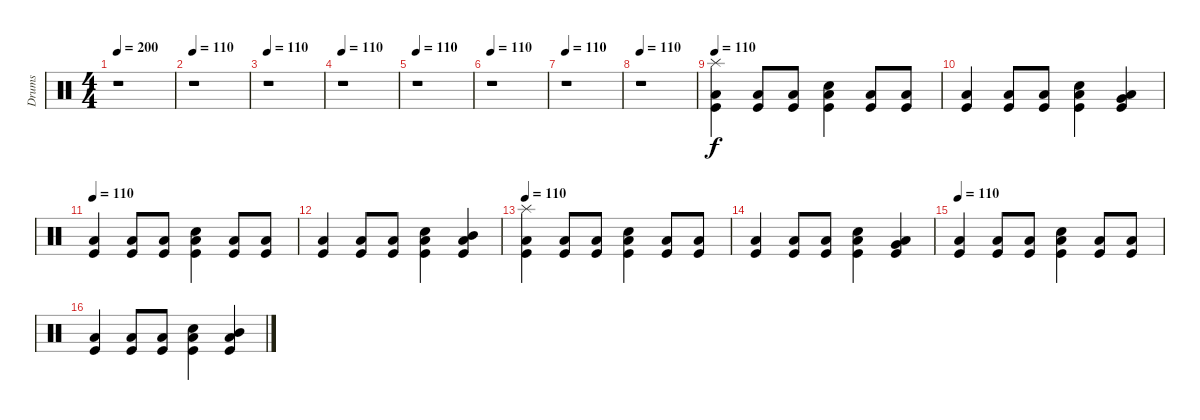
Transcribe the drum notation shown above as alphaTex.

\track ("Drums" "Drums") {instrument percussion}
\staff {score}
\articulation defaults
\ts (4 4)
\tempo 200
\tempo 110
\tempo 200
\clef neutral
\ks c
r.1{dy f} |
\tempo 110
r.1 |
\tempo 110
r.1 |
\tempo 110
r.1 |
\tempo 110
r.1 |
\tempo 110
r.1 |
\tempo 110
r.1 |
\tempo 110
r.1 |
\tempo 110
("Splash (hit)" "Low Floor Tom (hit)" "Kick (hit)").4 ("Low Floor Tom (hit)" "Kick (hit)").8 ("Low Floor Tom (hit)" "Kick (hit)").8 ("Snare (hit) 2" "Low Floor Tom (hit)" "Kick (hit)").4 ("Low Floor Tom (hit)" "Kick (hit)").8 ("Low Floor Tom (hit)" "Kick (hit)").8 |
("Low Floor Tom (hit)" "Kick (hit)").4 ("Low Floor Tom (hit)" "Kick (hit)").8 ("Low Floor Tom (hit)" "Kick (hit)").8 ("Snare (hit) 2" "Low Floor Tom (hit)" "Kick (hit)").4 ("Very Low Tom (hit)" "Low Floor Tom (hit)" "Kick (hit)").4 |
\tempo 110
("Low Floor Tom (hit)" "Kick (hit)").4 ("Low Floor Tom (hit)" "Kick (hit)").8 ("Low Floor Tom (hit)" "Kick (hit)").8 ("Snare (hit) 2" "Low Floor Tom (hit)" "Kick (hit)").4 ("Low Floor Tom (hit)" "Kick (hit)").8 ("Low Floor Tom (hit)" "Kick (hit)").8 |
("Low Floor Tom (hit)" "Kick (hit)").4 ("Low Floor Tom (hit)" "Kick (hit)").8 ("Low Floor Tom (hit)" "Kick (hit)").8 ("Snare (hit) 2" "Low Floor Tom (hit)" "Kick (hit)").4 ("Mid Tom (hit)" "Low Floor Tom (hit)" "Kick (hit)").4 |
\tempo 110
("Splash (hit)" "Low Floor Tom (hit)" "Kick (hit)").4 ("Low Floor Tom (hit)" "Kick (hit)").8 ("Low Floor Tom (hit)" "Kick (hit)").8 ("Snare (hit) 2" "Low Floor Tom (hit)" "Kick (hit)").4 ("Low Floor Tom (hit)" "Kick (hit)").8 ("Low Floor Tom (hit)" "Kick (hit)").8 |
("Low Floor Tom (hit)" "Kick (hit)").4 ("Low Floor Tom (hit)" "Kick (hit)").8 ("Low Floor Tom (hit)" "Kick (hit)").8 ("Snare (hit) 2" "Low Floor Tom (hit)" "Kick (hit)").4 ("Very Low Tom (hit)" "Low Floor Tom (hit)" "Kick (hit)").4 |
\tempo 110
("Low Floor Tom (hit)" "Kick (hit)").4 ("Low Floor Tom (hit)" "Kick (hit)").8 ("Low Floor Tom (hit)" "Kick (hit)").8 ("Snare (hit) 2" "Low Floor Tom (hit)" "Kick (hit)").4 ("Low Floor Tom (hit)" "Kick (hit)").8 ("Low Floor Tom (hit)" "Kick (hit)").8 |
("Low Floor Tom (hit)" "Kick (hit)").4 ("Low Floor Tom (hit)" "Kick (hit)").8 ("Low Floor Tom (hit)" "Kick (hit)").8 ("Snare (hit) 2" "Low Floor Tom (hit)" "Kick (hit)").4 ("Mid Tom (hit)" "Low Floor Tom (hit)" "Kick (hit)").4
